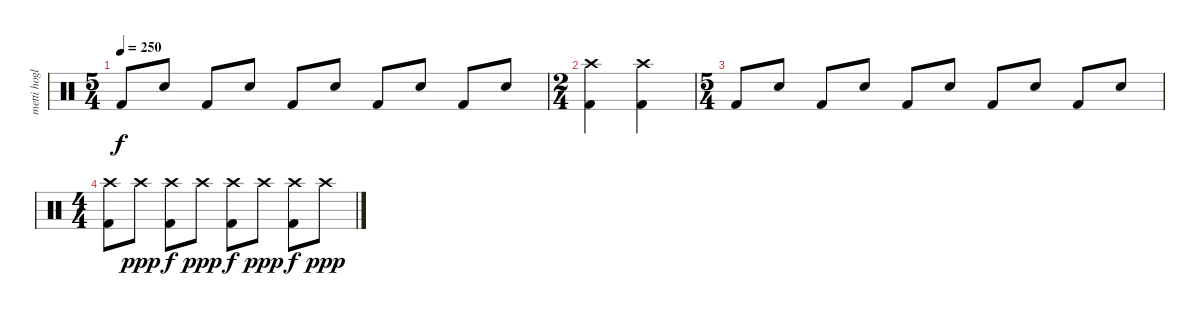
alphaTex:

\track ("metti hoglan" "metti hogl") {instrument percussion}
\staff {score}
\articulation defaults
\ts (5 4)
\tempo 250
\clef neutral
\ks c "Kick (hit) 2".8{dy f} "Snare (hit) 2".8 "Kick (hit) 2".8 "Snare (hit) 2".8 "Kick (hit) 2".8 "Snare (hit) 2".8 "Kick (hit) 2".8 "Snare (hit) 2".8 "Kick (hit) 2".8 "Snare (hit) 2".8
|
\ts (2 4)
("Crash high (hit)" "Kick (hit) 2").4 ("Crash high (hit)" "Kick (hit) 2").4 |
\ts (5 4)
"Kick (hit) 2".8 "Snare (hit) 2".8 "Kick (hit) 2".8 "Snare (hit) 2".8 "Kick (hit) 2".8 "Snare (hit) 2".8 "Kick (hit) 2".8 "Snare (hit) 2".8 "Kick (hit) 2".8 "Snare (hit) 2".8 |
\ts (4 4)
("Crash high (hit)" "Kick (hit) 2").8 "Crash high (hit)".8{dy ppp} ("Crash high (hit)" "Kick (hit) 2").8{dy f} "Crash high (hit)".8{dy ppp} ("Crash high (hit)" "Kick (hit) 2").8{dy f} "Crash high (hit)".8{dy ppp} ("Crash high (hit)" "Kick (hit) 2").8{dy f} "Crash high (hit)".8{dy ppp}
